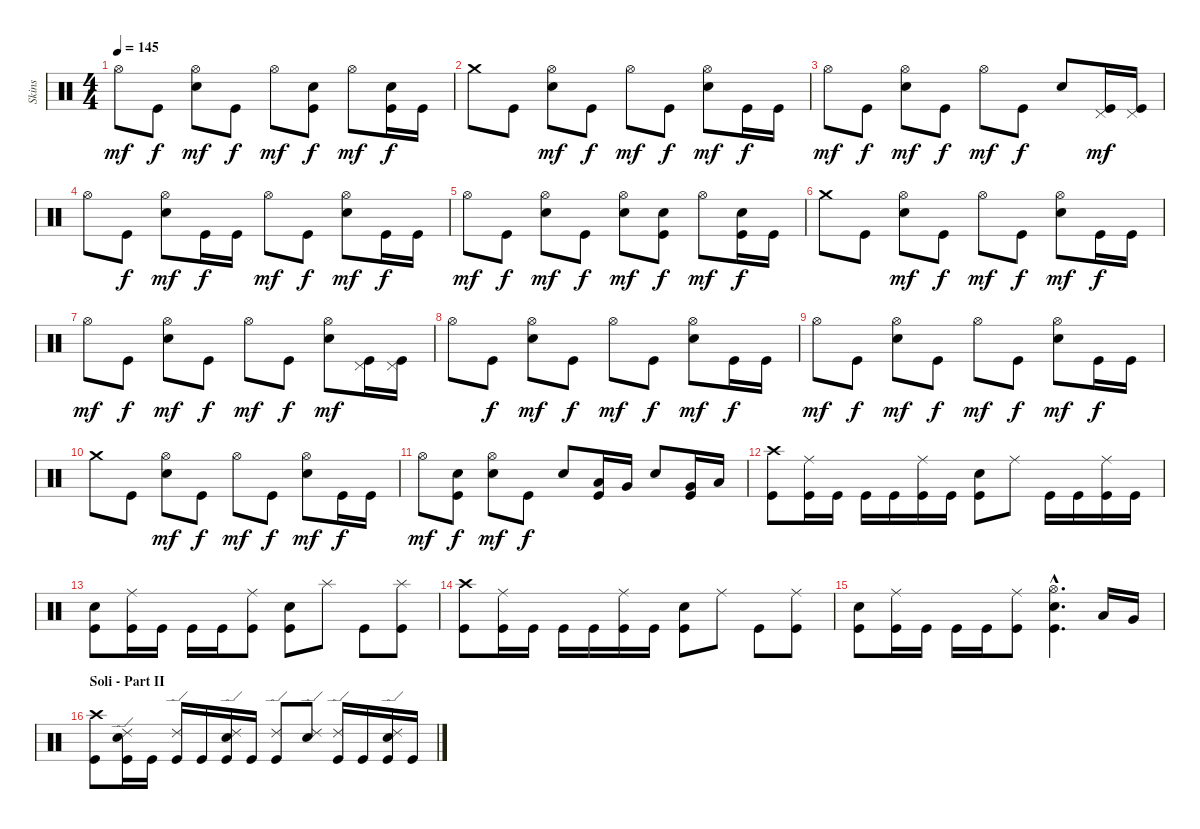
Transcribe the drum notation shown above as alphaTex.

\track ("Skins" "Skins") {instrument percussion}
\staff {score}
\articulation defaults
\ts (4 4)
\tempo 145
\clef neutral
\ks c "Hi-Hat (open)".8{dy mf} "Kick (hit)".8{dy f}
("Hi-Hat (open)" "Electric Snare (hit)").8{dy mf} "Kick (hit)".8{dy f} "Hi-Hat (open)".8{dy mf} ("Electric Snare (hit)" "Kick (hit)").8{dy f} "Hi-Hat (open)".8{dy mf} ("Electric Snare (hit)" "Kick (hit)").16{dy f} "Kick (hit)".16 |
"Crash medium (hit)".8 "Kick (hit)".8 ("Hi-Hat (open)" "Electric Snare (hit)").8{dy mf} "Kick (hit)".8{dy f} "Hi-Hat (open)".8{dy mf} "Kick (hit)".8{dy f} ("Hi-Hat (open)" "Electric Snare (hit)").8{dy mf} "Kick (hit)".16{dy f} "Kick (hit)".16 |
"Hi-Hat (open)".8{dy mf} "Kick (hit)".8{dy f} ("Hi-Hat (open)" "Electric Snare (hit)").8{dy mf} "Kick (hit)".8{dy f} "Hi-Hat (open)".8{dy mf} "Kick (hit)".8{dy f} "Electric Snare (hit)".8 ("Pedal Hi-Hat (hit)" "Kick (hit)").16{dy mf} ("Pedal Hi-Hat (hit)" "Kick (hit)").16 |
"Hi-Hat (open)".8 "Kick (hit)".8{dy f} ("Hi-Hat (open)" "Electric Snare (hit)").8{dy mf} "Kick (hit)".16{dy f} "Kick (hit)".16 "Hi-Hat (open)".8{dy mf} "Kick (hit)".8{dy f} ("Hi-Hat (open)" "Electric Snare (hit)").8{dy mf} "Kick (hit)".16{dy f} "Kick (hit)".16 |
"Hi-Hat (open)".8{dy mf} "Kick (hit)".8{dy f} ("Hi-Hat (open)" "Electric Snare (hit)").8{dy mf} "Kick (hit)".8{dy f} ("Hi-Hat (open)" "Electric Snare (hit)").8{dy mf} ("Electric Snare (hit)" "Kick (hit)").8{dy f} "Hi-Hat (open)".8{dy mf} ("Electric Snare (hit)" "Kick (hit)").16{dy f} "Kick (hit)".16 |
"Crash medium (hit)".8 "Kick (hit)".8 ("Hi-Hat (open)" "Electric Snare (hit)").8{dy mf} "Kick (hit)".8{dy f} "Hi-Hat (open)".8{dy mf} "Kick (hit)".8{dy f} ("Hi-Hat (open)" "Electric Snare (hit)").8{dy mf} "Kick (hit)".16{dy f} "Kick (hit)".16 |
"Hi-Hat (open)".8{dy mf} "Kick (hit)".8{dy f} ("Hi-Hat (open)" "Electric Snare (hit)").8{dy mf} "Kick (hit)".8{dy f} "Hi-Hat (open)".8{dy mf} "Kick (hit)".8{dy f} ("Hi-Hat (open)" "Electric Snare (hit)").8{dy mf} ("Pedal Hi-Hat (hit)" "Kick (hit)").16 ("Pedal Hi-Hat (hit)" "Kick (hit)").16 |
"Hi-Hat (open)".8 "Kick (hit)".8{dy f} ("Hi-Hat (open)" "Electric Snare (hit)").8{dy mf} "Kick (hit)".8{dy f} "Hi-Hat (open)".8{dy mf} "Kick (hit)".8{dy f} ("Hi-Hat (open)" "Electric Snare (hit)").8{dy mf} "Kick (hit)".16{dy f} "Kick (hit)".16 |
"Hi-Hat (open)".8{dy mf} "Kick (hit)".8{dy f} ("Hi-Hat (open)" "Electric Snare (hit)").8{dy mf} "Kick (hit)".8{dy f} "Hi-Hat (open)".8{dy mf} "Kick (hit)".8{dy f} ("Hi-Hat (open)" "Electric Snare (hit)").8{dy mf} "Kick (hit)".16{dy f} "Kick (hit)".16 |
"Crash medium (hit)".8 "Kick (hit)".8 ("Hi-Hat (open)" "Electric Snare (hit)").8{dy mf} "Kick (hit)".8{dy f} "Hi-Hat (open)".8{dy mf} "Kick (hit)".8{dy f} ("Hi-Hat (open)" "Electric Snare (hit)").8{dy mf} "Kick (hit)".16{dy f} "Kick (hit)".16 |
"Hi-Hat (open)".8{dy mf} ("Electric Snare (hit)" "Kick (hit)").8{dy f} ("Hi-Hat (open)" "Electric Snare (hit)").8{dy mf} "Kick (hit)".8{dy f} "Snare (hit) 2".8 ("Low Tom (hit)" "Kick (hit)").16 "Very Low Tom (hit)".16 "Electric Snare (hit)".8 ("Very Low Tom (hit)" "Kick (hit)").16 "Low Floor Tom (hit)".16 |
("Crash high (hit)" "Kick (hit)").8 ("Ride (middle)" "Kick (hit)").16 "Kick (hit)".16 "Kick (hit)".16 "Kick (hit)".16 ("Ride (middle)" "Kick (hit)").16 "Kick (hit)".16 ("Snare (hit) 2" "Kick (hit)").8 "Ride (middle)".8 "Kick (hit)".16 "Kick (hit)".16 ("Ride (middle)" "Kick (hit)").16 "Kick (hit)".16 |
("Snare (hit) 2" "Kick (hit)").8 ("Ride (middle)" "Kick (hit)").16 "Kick (hit)".16 "Kick (hit)".16 "Kick (hit)".16 ("Ride (middle)" "Kick (hit)").8 ("Snare (hit) 2" "Kick (hit)").8 "Splash (hit)".8 "Kick (hit)".8 ("Splash (hit)" "Kick (hit)").8 |
("Crash high (hit)" "Kick (hit)").8 ("Ride (middle)" "Kick (hit)").16 "Kick (hit)".16 "Kick (hit)".16 "Kick (hit)".16 ("Ride (middle)" "Kick (hit)").16 "Kick (hit)".16 ("Snare (hit) 2" "Kick (hit)").8 "Ride (middle)".8 "Kick (hit)".8 ("Ride (middle)" "Kick (hit)").8 |
("Snare (hit) 2" "Kick (hit)").8 ("Ride (middle)" "Kick (hit)").16 "Kick (hit)".16 "Kick (hit)".16 "Kick (hit)".16 ("Ride (middle)" "Kick (hit)").8 ("Hi-Hat (open)"{hac} "Electric Snare (hit)"{hac} "Kick (hit)"{hac}).4{d} "Low Tom (hit)".16 "Very Low Tom (hit)".16 |
\section ("" "Soli - Part II")
("Crash high (hit)" "Kick (hit)").8 ("Ride (edge) 2" "Snare (hit) 2" "Kick (hit)").16 "Kick (hit)".16 ("Ride (edge) 2" "Kick (hit)").16 "Kick (hit)".16 ("Ride (edge) 2" "Snare (hit) 2" "Kick (hit)").16 "Kick (hit)".16 ("Ride (edge) 2" "Kick (hit)").8 ("Ride (edge) 2" "Snare (hit) 2").8 ("Ride (edge) 2" "Kick (hit)").16 "Kick (hit)".16 ("Ride (edge) 2" "Snare (hit) 2" "Kick (hit)").16 "Kick (hit)".16
